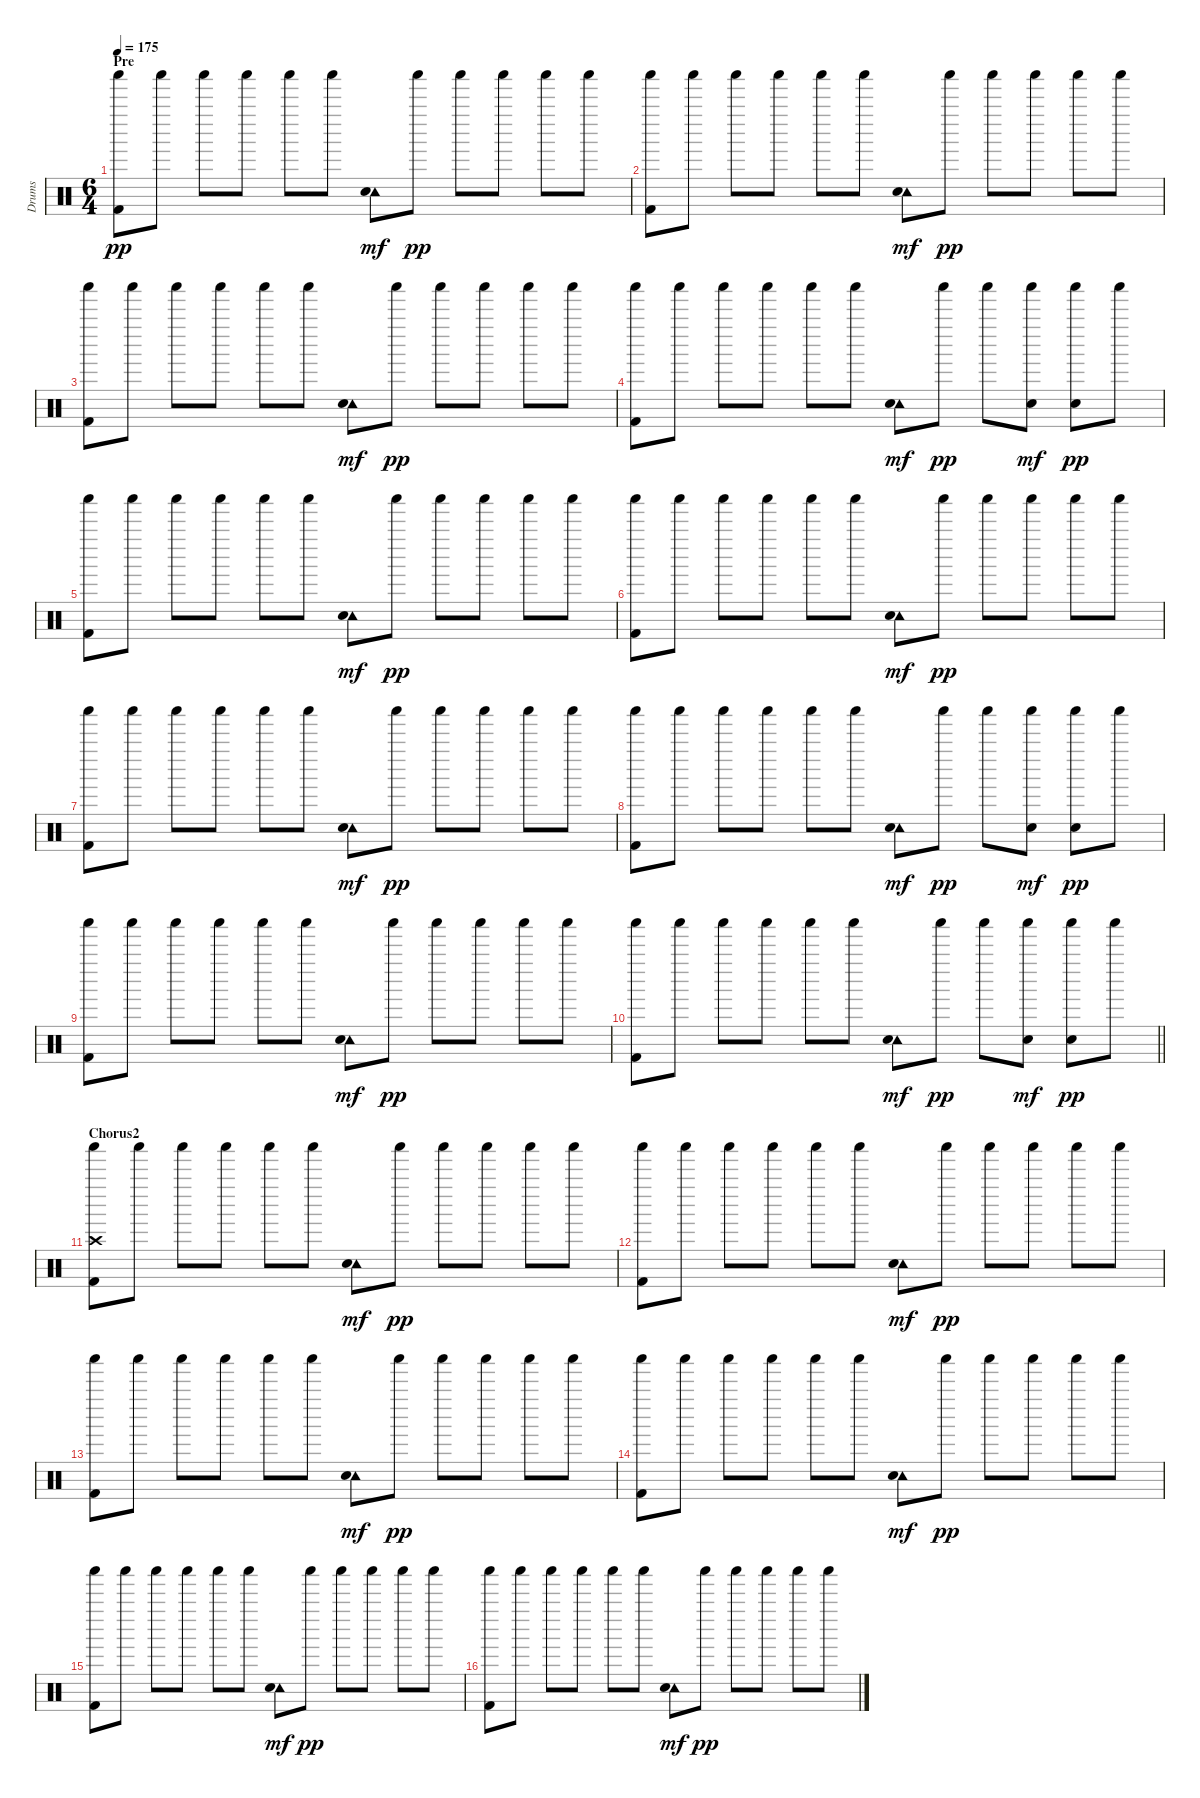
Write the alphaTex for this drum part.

\track ("Drums" "Drums") {instrument percussion}
\staff {score}
\articulation defaults
\ts (6 4)
\section ("" "Pre")
\tempo 175
\clef neutral
\ks c
("Shaker (hit)" "Kick (hit) 2").8{dy pp} "Shaker (hit)".8 "Shaker (hit)".8 "Shaker (hit)".8 "Shaker (hit)".8 "Shaker (hit)".8 ("Tambourine (hit)" "Snare (hit) 2").8{dy mf} "Shaker (hit)".8{dy pp} "Shaker (hit)".8 "Shaker (hit)".8 "Shaker (hit)".8 "Shaker (hit)".8 |
("Shaker (hit)" "Kick (hit) 2").8 "Shaker (hit)".8 "Shaker (hit)".8 "Shaker (hit)".8 "Shaker (hit)".8 "Shaker (hit)".8 ("Tambourine (hit)" "Snare (hit) 2").8{dy mf} "Shaker (hit)".8{dy pp} "Shaker (hit)".8 "Shaker (hit)".8 "Shaker (hit)".8 "Shaker (hit)".8 |
("Shaker (hit)" "Kick (hit) 2").8 "Shaker (hit)".8 "Shaker (hit)".8 "Shaker (hit)".8 "Shaker (hit)".8 "Shaker (hit)".8 ("Tambourine (hit)" "Snare (hit) 2").8{dy mf} "Shaker (hit)".8{dy pp} "Shaker (hit)".8 "Shaker (hit)".8 "Shaker (hit)".8 "Shaker (hit)".8 |
("Shaker (hit)" "Kick (hit) 2").8 "Shaker (hit)".8 "Shaker (hit)".8 "Shaker (hit)".8 "Shaker (hit)".8 "Shaker (hit)".8 ("Tambourine (hit)" "Snare (hit) 2").8{dy mf} "Shaker (hit)".8{dy pp} "Shaker (hit)".8 ("Shaker (hit)" "Snare (hit) 2").8{dy mf} ("Shaker (hit)" "Snare (hit) 2").8{dy pp} "Shaker (hit)".8 |
("Shaker (hit)" "Kick (hit) 2").8 "Shaker (hit)".8 "Shaker (hit)".8 "Shaker (hit)".8 "Shaker (hit)".8 "Shaker (hit)".8 ("Tambourine (hit)" "Snare (hit) 2").8{dy mf} "Shaker (hit)".8{dy pp} "Shaker (hit)".8 "Shaker (hit)".8 "Shaker (hit)".8 "Shaker (hit)".8 |
("Shaker (hit)" "Kick (hit) 2").8 "Shaker (hit)".8 "Shaker (hit)".8 "Shaker (hit)".8 "Shaker (hit)".8 "Shaker (hit)".8 ("Tambourine (hit)" "Snare (hit) 2").8{dy mf} "Shaker (hit)".8{dy pp} "Shaker (hit)".8 "Shaker (hit)".8 "Shaker (hit)".8 "Shaker (hit)".8 |
("Shaker (hit)" "Kick (hit) 2").8 "Shaker (hit)".8 "Shaker (hit)".8 "Shaker (hit)".8 "Shaker (hit)".8 "Shaker (hit)".8 ("Tambourine (hit)" "Snare (hit) 2").8{dy mf} "Shaker (hit)".8{dy pp} "Shaker (hit)".8 "Shaker (hit)".8 "Shaker (hit)".8 "Shaker (hit)".8 |
("Shaker (hit)" "Kick (hit) 2").8 "Shaker (hit)".8 "Shaker (hit)".8 "Shaker (hit)".8 "Shaker (hit)".8 "Shaker (hit)".8 ("Tambourine (hit)" "Snare (hit) 2").8{dy mf} "Shaker (hit)".8{dy pp} "Shaker (hit)".8 ("Shaker (hit)" "Snare (hit) 2").8{dy mf} ("Shaker (hit)" "Snare (hit) 2").8{dy pp} "Shaker (hit)".8 |
("Shaker (hit)" "Kick (hit) 2").8 "Shaker (hit)".8 "Shaker (hit)".8 "Shaker (hit)".8 "Shaker (hit)".8 "Shaker (hit)".8 ("Tambourine (hit)" "Snare (hit) 2").8{dy mf} "Shaker (hit)".8{dy pp} "Shaker (hit)".8 "Shaker (hit)".8 "Shaker (hit)".8 "Shaker (hit)".8 |
\barLineRight lightlight
("Shaker (hit)" "Kick (hit) 2").8 "Shaker (hit)".8 "Shaker (hit)".8 "Shaker (hit)".8 "Shaker (hit)".8 "Shaker (hit)".8 ("Tambourine (hit)" "Snare (hit) 2").8{dy mf} "Shaker (hit)".8{dy pp} "Shaker (hit)".8 ("Shaker (hit)" "Snare (hit) 2").8{dy mf} ("Shaker (hit)" "Snare (hit) 2").8{dy pp} "Shaker (hit)".8 |
\section ("" "Chorus2")
("Crash high (hit)" "Shaker (hit)" "Kick (hit) 2").8 "Shaker (hit)".8 "Shaker (hit)".8 "Shaker (hit)".8 "Shaker (hit)".8 "Shaker (hit)".8 ("Tambourine (hit)" "Snare (hit) 2").8{dy mf} "Shaker (hit)".8{dy pp} "Shaker (hit)".8 "Shaker (hit)".8 "Shaker (hit)".8 "Shaker (hit)".8 |
("Shaker (hit)" "Kick (hit) 2").8 "Shaker (hit)".8 "Shaker (hit)".8 "Shaker (hit)".8 "Shaker (hit)".8 "Shaker (hit)".8 ("Tambourine (hit)" "Snare (hit) 2").8{dy mf} "Shaker (hit)".8{dy pp} "Shaker (hit)".8 "Shaker (hit)".8 "Shaker (hit)".8 "Shaker (hit)".8 |
("Shaker (hit)" "Kick (hit) 2").8 "Shaker (hit)".8 "Shaker (hit)".8 "Shaker (hit)".8 "Shaker (hit)".8 "Shaker (hit)".8 ("Tambourine (hit)" "Snare (hit) 2").8{dy mf} "Shaker (hit)".8{dy pp} "Shaker (hit)".8 "Shaker (hit)".8 "Shaker (hit)".8 "Shaker (hit)".8 |
("Shaker (hit)" "Kick (hit) 2").8 "Shaker (hit)".8 "Shaker (hit)".8 "Shaker (hit)".8 "Shaker (hit)".8 "Shaker (hit)".8 ("Tambourine (hit)" "Snare (hit) 2").8{dy mf} "Shaker (hit)".8{dy pp} "Shaker (hit)".8 "Shaker (hit)".8 "Shaker (hit)".8 "Shaker (hit)".8 |
("Shaker (hit)" "Kick (hit) 2").8 "Shaker (hit)".8 "Shaker (hit)".8 "Shaker (hit)".8 "Shaker (hit)".8 "Shaker (hit)".8 ("Tambourine (hit)" "Snare (hit) 2").8{dy mf} "Shaker (hit)".8{dy pp} "Shaker (hit)".8 "Shaker (hit)".8 "Shaker (hit)".8 "Shaker (hit)".8 |
("Shaker (hit)" "Kick (hit) 2").8 "Shaker (hit)".8 "Shaker (hit)".8 "Shaker (hit)".8 "Shaker (hit)".8 "Shaker (hit)".8 ("Tambourine (hit)" "Snare (hit) 2").8{dy mf} "Shaker (hit)".8{dy pp} "Shaker (hit)".8 "Shaker (hit)".8 "Shaker (hit)".8 "Shaker (hit)".8
